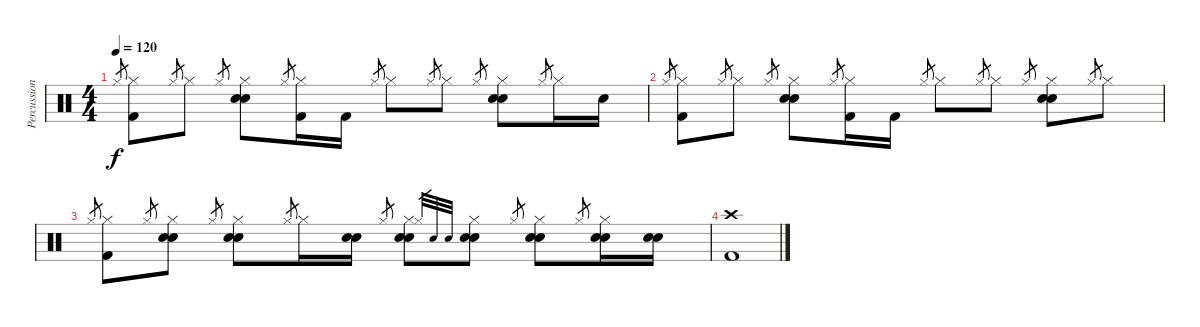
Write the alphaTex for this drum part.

\track ("Percussion" "Percussion") {instrument percussion}
\staff {score}
\articulation defaults
\ts (4 4)
\tempo 120
\clef neutral
\ks c "Hi-Hat (closed)".8{gr dy f}
("Hi-Hat (closed)" "Kick (hit) 2").8 "Hi-Hat (closed)".8{gr} "Hi-Hat (closed)".8 "Hi-Hat (closed)".8{gr} ("Hi-Hat (closed)" "Electric Snare (hit)" "Electric Snare (hit)").8 "Hi-Hat (closed)".8{gr} ("Hi-Hat (closed)" "Kick (hit) 2").16 "Kick (hit) 2".16 "Hi-Hat (closed)".8{gr} "Hi-Hat (closed)".8 "Hi-Hat (closed)".8{gr} "Hi-Hat (closed)".8 "Hi-Hat (closed)".8{gr} ("Hi-Hat (closed)" "Electric Snare (hit)" "Electric Snare (hit)").8 "Hi-Hat (closed)".8{gr} "Hi-Hat (closed)".16 "Electric Snare (hit)".16 |
"Hi-Hat (closed)".8{gr} ("Hi-Hat (closed)" "Kick (hit) 2").8 "Hi-Hat (closed)".8{gr} "Hi-Hat (closed)".8 "Hi-Hat (closed)".8{gr} ("Hi-Hat (closed)" "Electric Snare (hit)" "Electric Snare (hit)").8 "Hi-Hat (closed)".8{gr} ("Hi-Hat (closed)" "Kick (hit) 2").16 "Kick (hit) 2".16 "Hi-Hat (closed)".8{gr} "Hi-Hat (closed)".8 "Hi-Hat (closed)".8{gr} "Hi-Hat (closed)".8 "Hi-Hat (closed)".8{gr} ("Hi-Hat (closed)" "Electric Snare (hit)" "Electric Snare (hit)").8 "Hi-Hat (closed)".8{gr} "Hi-Hat (closed)".8 |
"Hi-Hat (closed)".8{gr} ("Hi-Hat (closed)" "Kick (hit) 2").8 "Hi-Hat (closed)".8{gr} ("Hi-Hat (closed)" "Electric Snare (hit)" "Electric Snare (hit)").8 "Hi-Hat (closed)".8{gr} ("Hi-Hat (closed)" "Electric Snare (hit)" "Electric Snare (hit)").8 "Hi-Hat (closed)".8{gr} "Hi-Hat (closed)".16 ("Electric Snare (hit)" "Electric Snare (hit)").16 "Hi-Hat (closed)".8{gr} ("Hi-Hat (closed)" "Electric Snare (hit)" "Electric Snare (hit)").8 "Hi-Hat (closed)".32{gr} "Electric Snare (hit)".32{gr} "Electric Snare (hit)".32{gr} ("Hi-Hat (closed)" "Electric Snare (hit)" "Electric Snare (hit)").8 "Hi-Hat (closed)".8{gr} ("Hi-Hat (closed)" "Electric Snare (hit)" "Electric Snare (hit)").8 "Hi-Hat (closed)".8{gr} ("Hi-Hat (closed)" "Electric Snare (hit)" "Electric Snare (hit)").16 ("Electric Snare (hit)" "Electric Snare (hit)").16 |
("Kick (hit) 2" "Crash high (hit)").1
